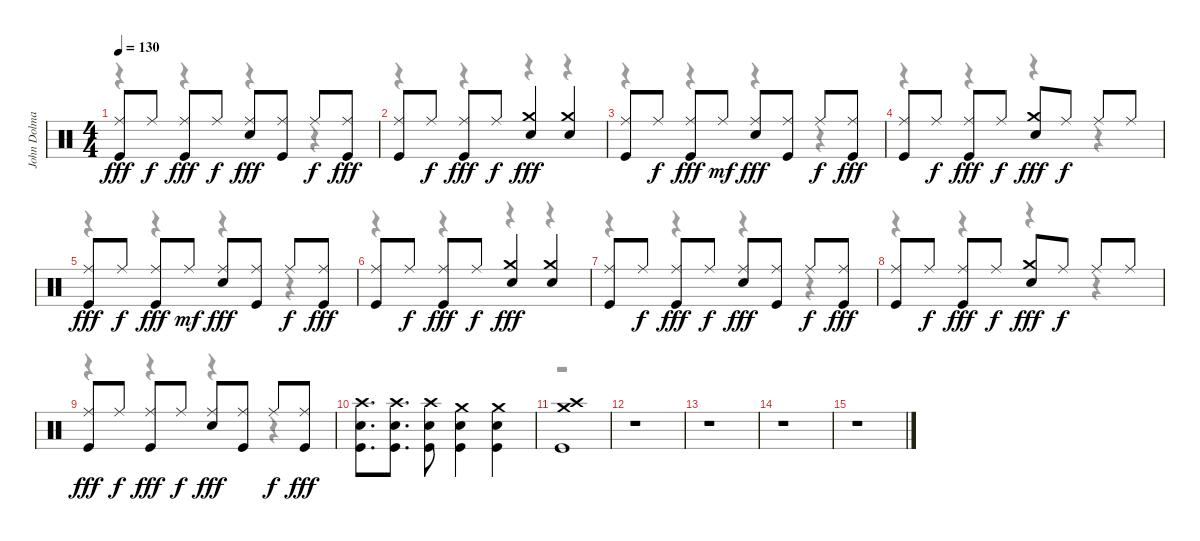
\track ("John Dolmayan" "John Dolma") {instrument percussion}
\staff {score}
\articulation defaults
\voice
\ts (4 4)
\tempo 130
\clef neutral
\ks c
("Ride (middle)" "Kick (hit)").8{dy fff} "Ride (middle)".8{dy f} ("Ride (middle)" "Kick (hit)").8{dy fff} "Ride (middle)".8{dy f} ("Ride (middle)" "Snare (hit) 2").8{dy fff} ("Ride (middle)" "Kick (hit)").8 "Ride (middle)".8{dy f} ("Ride (middle)" "Kick (hit)").8{dy fff} |
("Ride (middle)" "Kick (hit)").8 "Ride (middle)".8{dy f} ("Ride (middle)" "Kick (hit)").8{dy fff} "Ride (middle)".8{dy f} ("Crash medium (hit)" "Snare (hit) 2").4{dy fff} ("Crash medium (hit)" "Snare (hit) 2").4 |
("Ride (middle)" "Kick (hit)").8 "Ride (middle)".8{dy f} ("Ride (middle)" "Kick (hit)").8{dy fff} "Ride (middle)".8{dy mf} ("Ride (middle)" "Snare (hit) 2").8{dy fff} ("Ride (middle)" "Kick (hit)").8 "Ride (middle)".8{dy f} ("Ride (middle)" "Kick (hit)").8{dy fff} |
("Ride (middle)" "Kick (hit)").8 "Ride (middle)".8{dy f} ("Ride (middle)" "Kick (hit)").8{dy fff} "Ride (middle)".8{dy f} ("Crash medium (hit)" "Snare (hit) 2").8{dy fff} "Ride (middle)".8{dy f} "Ride (middle)".8 "Ride (middle)".8 |
("Ride (middle)" "Kick (hit)").8{dy fff} "Ride (middle)".8{dy f} ("Ride (middle)" "Kick (hit)").8{dy fff} "Ride (middle)".8{dy mf} ("Ride (middle)" "Snare (hit) 2").8{dy fff} ("Ride (middle)" "Kick (hit)").8 "Ride (middle)".8{dy f} ("Ride (middle)" "Kick (hit)").8{dy fff} |
("Ride (middle)" "Kick (hit)").8 "Ride (middle)".8{dy f} ("Ride (middle)" "Kick (hit)").8{dy fff} "Ride (middle)".8{dy f} ("Crash medium (hit)" "Snare (hit) 2").4{dy fff} ("Crash medium (hit)" "Snare (hit) 2").4 |
("Ride (middle)" "Kick (hit)").8 "Ride (middle)".8{dy f} ("Ride (middle)" "Kick (hit)").8{dy fff} "Ride (middle)".8{dy f} ("Ride (middle)" "Snare (hit) 2").8{dy fff} ("Ride (middle)" "Kick (hit)").8 "Ride (middle)".8{dy f} ("Ride (middle)" "Kick (hit)").8{dy fff} |
("Ride (middle)" "Kick (hit)").8 "Ride (middle)".8{dy f} ("Ride (middle)" "Kick (hit)").8{dy fff} "Ride (middle)".8{dy f} ("Crash medium (hit)" "Snare (hit) 2").8{dy fff} "Ride (middle)".8{dy f} "Ride (middle)".8 "Ride (middle)".8 |
("Ride (middle)" "Kick (hit)").8{dy fff} "Ride (middle)".8{dy f} ("Ride (middle)" "Kick (hit)").8{dy fff} "Ride (middle)".8{dy f} ("Ride (middle)" "Snare (hit) 2").8{dy fff} ("Ride (middle)" "Kick (hit)").8 "Ride (middle)".8{dy f} ("Ride (middle)" "Kick (hit)").8{dy fff} |
("Snare (hit) 2" "Crash high (hit)" "Kick (hit)").8{d} ("Snare (hit) 2" "Crash high (hit)" "Kick (hit)").8{d} ("Snare (hit) 2" "Crash high (hit)" "Kick (hit)").8 ("Snare (hit) 2" "Crash medium (hit)" "Kick (hit)").4 ("Snare (hit) 2" "Crash medium (hit)" "Kick (hit)").4 |
("Crash medium (hit)" "Crash high (hit)" "Kick (hit)").1 |
r.1 |
r.1 |
r.1 |
r.1
\voice
\clef neutral
\ottava regular
\simile none
\ks c
r.4{dy f} r.4 r.4 r.4 |
r.4 r.4 r.4 r.4 |
r.4 r.4 r.4 r.4 |
r.4 r.4 r.4 r.4 |
r.4 r.4 r.4 r.4 |
r.4 r.4 r.4 r.4 |
r.4 r.4 r.4 r.4 |
r.4 r.4 r.4 r.4 |
r.4 r.4 r.4 r.4 |
|
r.1 |
r.1 |
r.1 |
|
